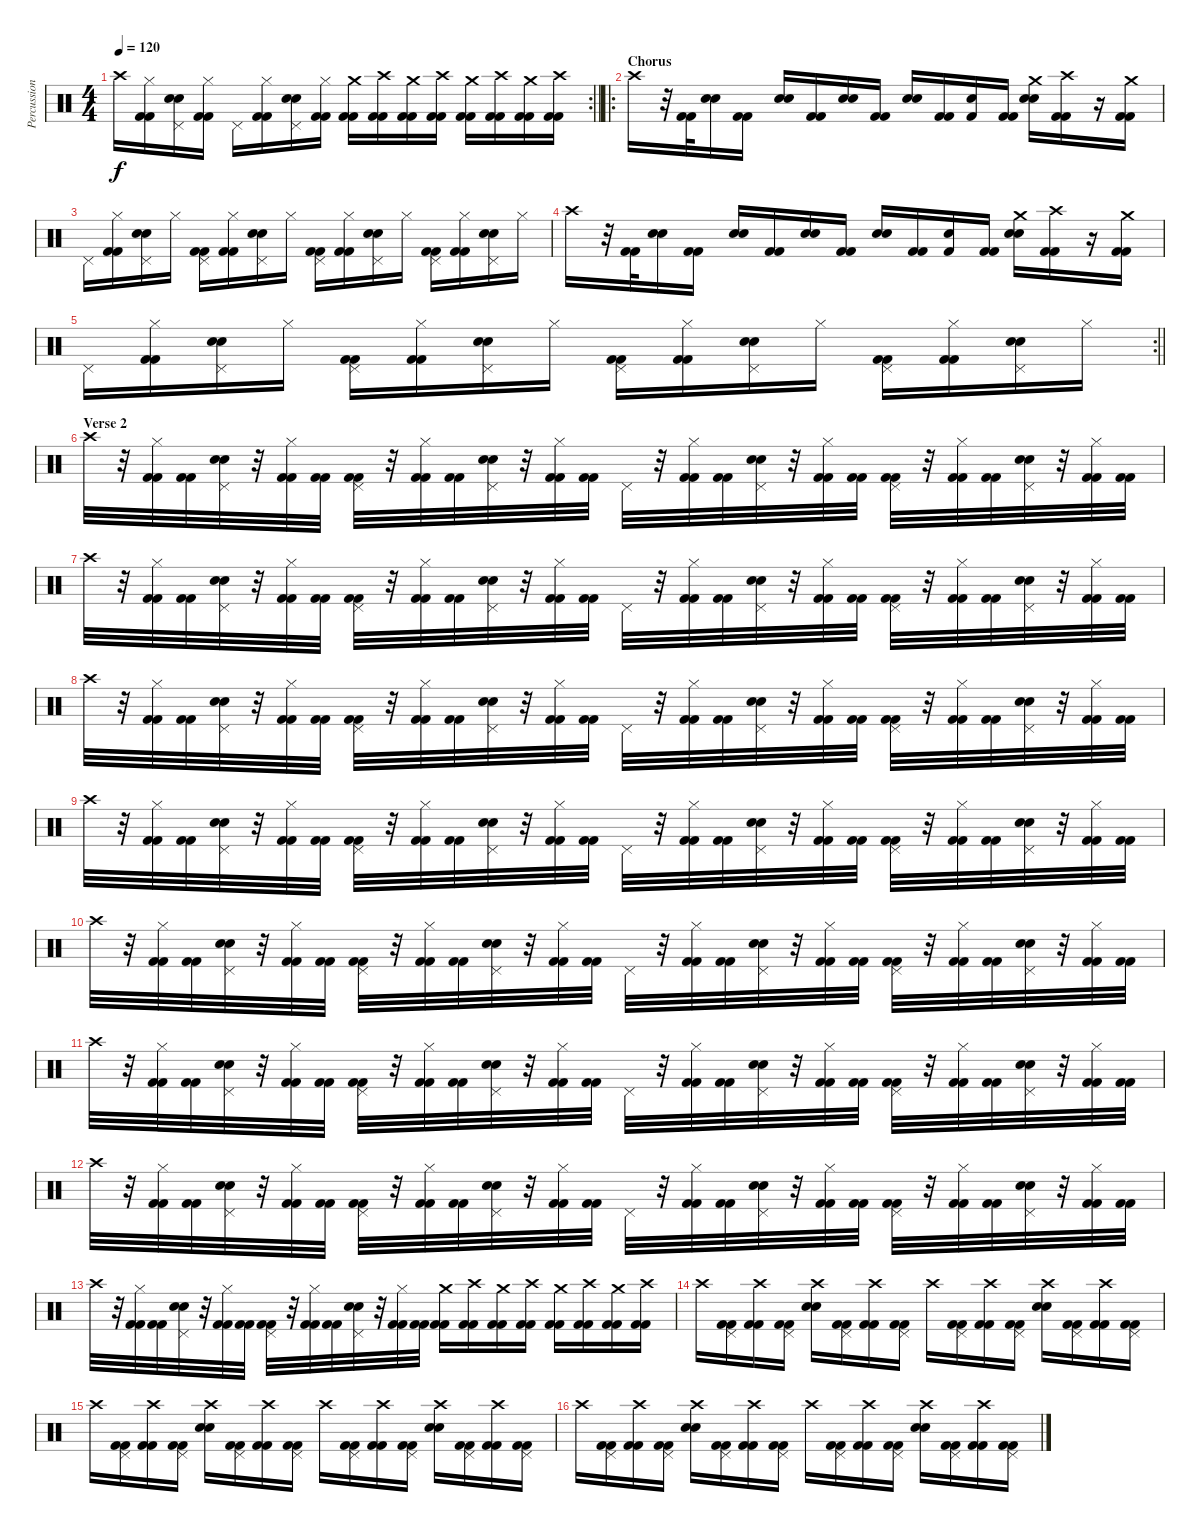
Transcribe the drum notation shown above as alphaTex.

\track ("Percussions" "Percussion") {instrument percussion}
\staff {score}
\articulation defaults
\rc 2
\ts (4 4)
\tempo 120
\clef neutral
\barLineRight lightlight
\ks c "Crash high (hit)".16{dy f}
("Hi-Hat (closed)" "Kick (hit) 2" "Kick (hit) 2").16 ("Pedal Hi-Hat (hit)" "Snare (hit) 2" "Electric Snare (hit)").16 ("Hi-Hat (closed)" "Kick (hit) 2" "Kick (hit) 2").16 "Pedal Hi-Hat (hit)".16 ("Hi-Hat (closed)" "Kick (hit) 2" "Kick (hit) 2").16 ("Pedal Hi-Hat (hit)" "Snare (hit) 2" "Electric Snare (hit)").16 ("Hi-Hat (closed)" "Kick (hit) 2" "Kick (hit) 2").16 ("Crash medium (hit)" "Kick (hit) 2" "Kick (hit) 2").16 ("Crash high (hit)" "Kick (hit) 2" "Kick (hit) 2").16 ("Crash medium (hit)" "Kick (hit) 2" "Kick (hit) 2").16 ("Crash high (hit)" "Kick (hit) 2" "Kick (hit) 2").16 ("Crash medium (hit)" "Kick (hit) 2" "Kick (hit) 2").16 ("Crash high (hit)" "Kick (hit) 2" "Kick (hit) 2").16 ("Crash medium (hit)" "Kick (hit) 2" "Kick (hit) 2").16 ("Crash high (hit)" "Kick (hit) 2" "Kick (hit) 2").16 |
\ro
\section ("" "Chorus")
"Crash high (hit)".16 r.32 ("Kick (hit) 2" "Kick (hit) 2").32 ("Snare (hit) 2" "Electric Snare (hit)").16 ("Kick (hit) 2" "Kick (hit) 2").16 ("Snare (hit) 2" "Electric Snare (hit)").16 ("Kick (hit) 2" "Kick (hit) 2").16 ("Snare (hit) 2" "Electric Snare (hit)").16 ("Kick (hit) 2" "Kick (hit) 2").16 ("Snare (hit) 2" "Electric Snare (hit)").16 ("Kick (hit) 2" "Kick (hit) 2").16 ("Kick (hit) 2" "Electric Snare (hit)").16 ("Kick (hit) 2" "Kick (hit) 2").16 ("Crash medium (hit)" "Snare (hit) 2" "Electric Snare (hit)").16 ("Crash high (hit)" "Kick (hit) 2" "Kick (hit) 2").16 r.16 ("Crash medium (hit)" "Kick (hit) 2" "Kick (hit) 2").16 |
"Pedal Hi-Hat (hit)".16 ("Hi-Hat (closed)" "Kick (hit) 2" "Kick (hit) 2").16 ("Pedal Hi-Hat (hit)" "Snare (hit) 2" "Electric Snare (hit)").16 "Hi-Hat (closed)".16 ("Pedal Hi-Hat (hit)" "Kick (hit) 2" "Kick (hit) 2").16 ("Hi-Hat (closed)" "Kick (hit) 2" "Kick (hit) 2").16 ("Pedal Hi-Hat (hit)" "Snare (hit) 2" "Electric Snare (hit)").16 "Hi-Hat (closed)".16 ("Pedal Hi-Hat (hit)" "Kick (hit) 2" "Kick (hit) 2").16 ("Hi-Hat (closed)" "Kick (hit) 2" "Kick (hit) 2").16 ("Pedal Hi-Hat (hit)" "Snare (hit) 2" "Electric Snare (hit)").16 "Hi-Hat (closed)".16 ("Pedal Hi-Hat (hit)" "Kick (hit) 2" "Kick (hit) 2").16 ("Hi-Hat (closed)" "Kick (hit) 2" "Kick (hit) 2").16 ("Pedal Hi-Hat (hit)" "Snare (hit) 2" "Electric Snare (hit)").16 "Hi-Hat (closed)".16 |
"Crash high (hit)".16 r.32 ("Kick (hit) 2" "Kick (hit) 2").32 ("Snare (hit) 2" "Electric Snare (hit)").16 ("Kick (hit) 2" "Kick (hit) 2").16 ("Snare (hit) 2" "Electric Snare (hit)").16 ("Kick (hit) 2" "Kick (hit) 2").16 ("Snare (hit) 2" "Electric Snare (hit)").16 ("Kick (hit) 2" "Kick (hit) 2").16 ("Snare (hit) 2" "Electric Snare (hit)").16 ("Kick (hit) 2" "Kick (hit) 2").16 ("Kick (hit) 2" "Electric Snare (hit)").16 ("Kick (hit) 2" "Kick (hit) 2").16 ("Crash medium (hit)" "Snare (hit) 2" "Electric Snare (hit)").16 ("Crash high (hit)" "Kick (hit) 2" "Kick (hit) 2").16 r.16 ("Crash medium (hit)" "Kick (hit) 2" "Kick (hit) 2").16 |
\rc 2
\barLineRight lightlight "Pedal Hi-Hat (hit)".16
("Hi-Hat (closed)" "Kick (hit) 2" "Kick (hit) 2").16 ("Pedal Hi-Hat (hit)" "Snare (hit) 2" "Electric Snare (hit)").16 "Hi-Hat (closed)".16 ("Pedal Hi-Hat (hit)" "Kick (hit) 2" "Kick (hit) 2").16 ("Hi-Hat (closed)" "Kick (hit) 2" "Kick (hit) 2").16 ("Pedal Hi-Hat (hit)" "Snare (hit) 2" "Electric Snare (hit)").16 "Hi-Hat (closed)".16 ("Pedal Hi-Hat (hit)" "Kick (hit) 2" "Kick (hit) 2").16 ("Hi-Hat (closed)" "Kick (hit) 2" "Kick (hit) 2").16 ("Pedal Hi-Hat (hit)" "Snare (hit) 2" "Electric Snare (hit)").16 "Hi-Hat (closed)".16 ("Pedal Hi-Hat (hit)" "Kick (hit) 2" "Kick (hit) 2").16 ("Hi-Hat (closed)" "Kick (hit) 2" "Kick (hit) 2").16 ("Pedal Hi-Hat (hit)" "Snare (hit) 2" "Electric Snare (hit)").16 "Hi-Hat (closed)".16 |
\section ("" "Verse 2")
"Crash high (hit)".32 r.32 ("Hi-Hat (closed)" "Kick (hit) 2" "Kick (hit) 2").32 ("Kick (hit) 2" "Kick (hit) 2").32 ("Pedal Hi-Hat (hit)" "Snare (hit) 2" "Electric Snare (hit)").32 r.32 ("Hi-Hat (closed)" "Kick (hit) 2" "Kick (hit) 2").32 ("Kick (hit) 2" "Kick (hit) 2").32 ("Pedal Hi-Hat (hit)" "Kick (hit) 2" "Kick (hit) 2").32 r.32 ("Hi-Hat (closed)" "Kick (hit) 2" "Kick (hit) 2").32 ("Kick (hit) 2" "Kick (hit) 2").32 ("Pedal Hi-Hat (hit)" "Snare (hit) 2" "Electric Snare (hit)").32 r.32 ("Hi-Hat (closed)" "Kick (hit) 2" "Kick (hit) 2").32 ("Kick (hit) 2" "Kick (hit) 2").32 "Pedal Hi-Hat (hit)".32 r.32 ("Hi-Hat (closed)" "Kick (hit) 2" "Kick (hit) 2").32 ("Kick (hit) 2" "Kick (hit) 2").32 ("Pedal Hi-Hat (hit)" "Snare (hit) 2" "Electric Snare (hit)").32 r.32 ("Hi-Hat (closed)" "Kick (hit) 2" "Kick (hit) 2").32 ("Kick (hit) 2" "Kick (hit) 2").32 ("Pedal Hi-Hat (hit)" "Kick (hit) 2" "Kick (hit) 2").32 r.32 ("Hi-Hat (closed)" "Kick (hit) 2" "Kick (hit) 2").32 ("Kick (hit) 2" "Kick (hit) 2").32 ("Pedal Hi-Hat (hit)" "Snare (hit) 2" "Electric Snare (hit)").32 r.32 ("Hi-Hat (closed)" "Kick (hit) 2" "Kick (hit) 2").32 ("Kick (hit) 2" "Kick (hit) 2").32 |
"Crash high (hit)".32 r.32 ("Hi-Hat (closed)" "Kick (hit) 2" "Kick (hit) 2").32 ("Kick (hit) 2" "Kick (hit) 2").32 ("Pedal Hi-Hat (hit)" "Snare (hit) 2" "Electric Snare (hit)").32 r.32 ("Hi-Hat (closed)" "Kick (hit) 2" "Kick (hit) 2").32 ("Kick (hit) 2" "Kick (hit) 2").32 ("Pedal Hi-Hat (hit)" "Kick (hit) 2" "Kick (hit) 2").32 r.32 ("Hi-Hat (closed)" "Kick (hit) 2" "Kick (hit) 2").32 ("Kick (hit) 2" "Kick (hit) 2").32 ("Pedal Hi-Hat (hit)" "Snare (hit) 2" "Electric Snare (hit)").32 r.32 ("Hi-Hat (closed)" "Kick (hit) 2" "Kick (hit) 2").32 ("Kick (hit) 2" "Kick (hit) 2").32 "Pedal Hi-Hat (hit)".32 r.32 ("Hi-Hat (closed)" "Kick (hit) 2" "Kick (hit) 2").32 ("Kick (hit) 2" "Kick (hit) 2").32 ("Pedal Hi-Hat (hit)" "Snare (hit) 2" "Electric Snare (hit)").32 r.32 ("Hi-Hat (closed)" "Kick (hit) 2" "Kick (hit) 2").32 ("Kick (hit) 2" "Kick (hit) 2").32 ("Pedal Hi-Hat (hit)" "Kick (hit) 2" "Kick (hit) 2").32 r.32 ("Hi-Hat (closed)" "Kick (hit) 2" "Kick (hit) 2").32 ("Kick (hit) 2" "Kick (hit) 2").32 ("Pedal Hi-Hat (hit)" "Snare (hit) 2" "Electric Snare (hit)").32 r.32 ("Hi-Hat (closed)" "Kick (hit) 2" "Kick (hit) 2").32 ("Kick (hit) 2" "Kick (hit) 2").32 |
"Crash high (hit)".32 r.32 ("Hi-Hat (closed)" "Kick (hit) 2" "Kick (hit) 2").32 ("Kick (hit) 2" "Kick (hit) 2").32 ("Pedal Hi-Hat (hit)" "Snare (hit) 2" "Electric Snare (hit)").32 r.32 ("Hi-Hat (closed)" "Kick (hit) 2" "Kick (hit) 2").32 ("Kick (hit) 2" "Kick (hit) 2").32 ("Pedal Hi-Hat (hit)" "Kick (hit) 2" "Kick (hit) 2").32 r.32 ("Hi-Hat (closed)" "Kick (hit) 2" "Kick (hit) 2").32 ("Kick (hit) 2" "Kick (hit) 2").32 ("Pedal Hi-Hat (hit)" "Snare (hit) 2" "Electric Snare (hit)").32 r.32 ("Hi-Hat (closed)" "Kick (hit) 2" "Kick (hit) 2").32 ("Kick (hit) 2" "Kick (hit) 2").32 "Pedal Hi-Hat (hit)".32 r.32 ("Hi-Hat (closed)" "Kick (hit) 2" "Kick (hit) 2").32 ("Kick (hit) 2" "Kick (hit) 2").32 ("Pedal Hi-Hat (hit)" "Snare (hit) 2" "Electric Snare (hit)").32 r.32 ("Hi-Hat (closed)" "Kick (hit) 2" "Kick (hit) 2").32 ("Kick (hit) 2" "Kick (hit) 2").32 ("Pedal Hi-Hat (hit)" "Kick (hit) 2" "Kick (hit) 2").32 r.32 ("Hi-Hat (closed)" "Kick (hit) 2" "Kick (hit) 2").32 ("Kick (hit) 2" "Kick (hit) 2").32 ("Pedal Hi-Hat (hit)" "Snare (hit) 2" "Electric Snare (hit)").32 r.32 ("Hi-Hat (closed)" "Kick (hit) 2" "Kick (hit) 2").32 ("Kick (hit) 2" "Kick (hit) 2").32 |
"Crash high (hit)".32 r.32 ("Hi-Hat (closed)" "Kick (hit) 2" "Kick (hit) 2").32 ("Kick (hit) 2" "Kick (hit) 2").32 ("Pedal Hi-Hat (hit)" "Snare (hit) 2" "Electric Snare (hit)").32 r.32 ("Hi-Hat (closed)" "Kick (hit) 2" "Kick (hit) 2").32 ("Kick (hit) 2" "Kick (hit) 2").32 ("Pedal Hi-Hat (hit)" "Kick (hit) 2" "Kick (hit) 2").32 r.32 ("Hi-Hat (closed)" "Kick (hit) 2" "Kick (hit) 2").32 ("Kick (hit) 2" "Kick (hit) 2").32 ("Pedal Hi-Hat (hit)" "Snare (hit) 2" "Electric Snare (hit)").32 r.32 ("Hi-Hat (closed)" "Kick (hit) 2" "Kick (hit) 2").32 ("Kick (hit) 2" "Kick (hit) 2").32 "Pedal Hi-Hat (hit)".32 r.32 ("Hi-Hat (closed)" "Kick (hit) 2" "Kick (hit) 2").32 ("Kick (hit) 2" "Kick (hit) 2").32 ("Pedal Hi-Hat (hit)" "Snare (hit) 2" "Electric Snare (hit)").32 r.32 ("Hi-Hat (closed)" "Kick (hit) 2" "Kick (hit) 2").32 ("Kick (hit) 2" "Kick (hit) 2").32 ("Pedal Hi-Hat (hit)" "Kick (hit) 2" "Kick (hit) 2").32 r.32 ("Hi-Hat (closed)" "Kick (hit) 2" "Kick (hit) 2").32 ("Kick (hit) 2" "Kick (hit) 2").32 ("Pedal Hi-Hat (hit)" "Snare (hit) 2" "Electric Snare (hit)").32 r.32 ("Hi-Hat (closed)" "Kick (hit) 2" "Kick (hit) 2").32 ("Kick (hit) 2" "Kick (hit) 2").32 |
"Crash high (hit)".32 r.32 ("Hi-Hat (closed)" "Kick (hit) 2" "Kick (hit) 2").32 ("Kick (hit) 2" "Kick (hit) 2").32 ("Pedal Hi-Hat (hit)" "Snare (hit) 2" "Electric Snare (hit)").32 r.32 ("Hi-Hat (closed)" "Kick (hit) 2" "Kick (hit) 2").32 ("Kick (hit) 2" "Kick (hit) 2").32 ("Pedal Hi-Hat (hit)" "Kick (hit) 2" "Kick (hit) 2").32 r.32 ("Hi-Hat (closed)" "Kick (hit) 2" "Kick (hit) 2").32 ("Kick (hit) 2" "Kick (hit) 2").32 ("Pedal Hi-Hat (hit)" "Snare (hit) 2" "Electric Snare (hit)").32 r.32 ("Hi-Hat (closed)" "Kick (hit) 2" "Kick (hit) 2").32 ("Kick (hit) 2" "Kick (hit) 2").32 "Pedal Hi-Hat (hit)".32 r.32 ("Hi-Hat (closed)" "Kick (hit) 2" "Kick (hit) 2").32 ("Kick (hit) 2" "Kick (hit) 2").32 ("Pedal Hi-Hat (hit)" "Snare (hit) 2" "Electric Snare (hit)").32 r.32 ("Hi-Hat (closed)" "Kick (hit) 2" "Kick (hit) 2").32 ("Kick (hit) 2" "Kick (hit) 2").32 ("Pedal Hi-Hat (hit)" "Kick (hit) 2" "Kick (hit) 2").32 r.32 ("Hi-Hat (closed)" "Kick (hit) 2" "Kick (hit) 2").32 ("Kick (hit) 2" "Kick (hit) 2").32 ("Pedal Hi-Hat (hit)" "Snare (hit) 2" "Electric Snare (hit)").32 r.32 ("Hi-Hat (closed)" "Kick (hit) 2" "Kick (hit) 2").32 ("Kick (hit) 2" "Kick (hit) 2").32 |
"Crash high (hit)".32 r.32 ("Hi-Hat (closed)" "Kick (hit) 2" "Kick (hit) 2").32 ("Kick (hit) 2" "Kick (hit) 2").32 ("Pedal Hi-Hat (hit)" "Snare (hit) 2" "Electric Snare (hit)").32 r.32 ("Hi-Hat (closed)" "Kick (hit) 2" "Kick (hit) 2").32 ("Kick (hit) 2" "Kick (hit) 2").32 ("Pedal Hi-Hat (hit)" "Kick (hit) 2" "Kick (hit) 2").32 r.32 ("Hi-Hat (closed)" "Kick (hit) 2" "Kick (hit) 2").32 ("Kick (hit) 2" "Kick (hit) 2").32 ("Pedal Hi-Hat (hit)" "Snare (hit) 2" "Electric Snare (hit)").32 r.32 ("Hi-Hat (closed)" "Kick (hit) 2" "Kick (hit) 2").32 ("Kick (hit) 2" "Kick (hit) 2").32 "Pedal Hi-Hat (hit)".32 r.32 ("Hi-Hat (closed)" "Kick (hit) 2" "Kick (hit) 2").32 ("Kick (hit) 2" "Kick (hit) 2").32 ("Pedal Hi-Hat (hit)" "Snare (hit) 2" "Electric Snare (hit)").32 r.32 ("Hi-Hat (closed)" "Kick (hit) 2" "Kick (hit) 2").32 ("Kick (hit) 2" "Kick (hit) 2").32 ("Pedal Hi-Hat (hit)" "Kick (hit) 2" "Kick (hit) 2").32 r.32 ("Hi-Hat (closed)" "Kick (hit) 2" "Kick (hit) 2").32 ("Kick (hit) 2" "Kick (hit) 2").32 ("Pedal Hi-Hat (hit)" "Snare (hit) 2" "Electric Snare (hit)").32 r.32 ("Hi-Hat (closed)" "Kick (hit) 2" "Kick (hit) 2").32 ("Kick (hit) 2" "Kick (hit) 2").32 |
"Crash high (hit)".32 r.32 ("Hi-Hat (closed)" "Kick (hit) 2" "Kick (hit) 2").32 ("Kick (hit) 2" "Kick (hit) 2").32 ("Pedal Hi-Hat (hit)" "Snare (hit) 2" "Electric Snare (hit)").32 r.32 ("Hi-Hat (closed)" "Kick (hit) 2" "Kick (hit) 2").32 ("Kick (hit) 2" "Kick (hit) 2").32 ("Pedal Hi-Hat (hit)" "Kick (hit) 2" "Kick (hit) 2").32 r.32 ("Hi-Hat (closed)" "Kick (hit) 2" "Kick (hit) 2").32 ("Kick (hit) 2" "Kick (hit) 2").32 ("Pedal Hi-Hat (hit)" "Snare (hit) 2" "Electric Snare (hit)").32 r.32 ("Hi-Hat (closed)" "Kick (hit) 2" "Kick (hit) 2").32 ("Kick (hit) 2" "Kick (hit) 2").32 "Pedal Hi-Hat (hit)".32 r.32 ("Hi-Hat (closed)" "Kick (hit) 2" "Kick (hit) 2").32 ("Kick (hit) 2" "Kick (hit) 2").32 ("Pedal Hi-Hat (hit)" "Snare (hit) 2" "Electric Snare (hit)").32 r.32 ("Hi-Hat (closed)" "Kick (hit) 2" "Kick (hit) 2").32 ("Kick (hit) 2" "Kick (hit) 2").32 ("Pedal Hi-Hat (hit)" "Kick (hit) 2" "Kick (hit) 2").32 r.32 ("Hi-Hat (closed)" "Kick (hit) 2" "Kick (hit) 2").32 ("Kick (hit) 2" "Kick (hit) 2").32 ("Pedal Hi-Hat (hit)" "Snare (hit) 2" "Electric Snare (hit)").32 r.32 ("Hi-Hat (closed)" "Kick (hit) 2" "Kick (hit) 2").32 ("Kick (hit) 2" "Kick (hit) 2").32 |
"Crash high (hit)".32 r.32 ("Hi-Hat (closed)" "Kick (hit) 2" "Kick (hit) 2").32 ("Kick (hit) 2" "Kick (hit) 2").32 ("Pedal Hi-Hat (hit)" "Snare (hit) 2" "Electric Snare (hit)").32 r.32 ("Hi-Hat (closed)" "Kick (hit) 2" "Kick (hit) 2").32 ("Kick (hit) 2" "Kick (hit) 2").32 ("Pedal Hi-Hat (hit)" "Kick (hit) 2" "Kick (hit) 2").32 r.32 ("Hi-Hat (closed)" "Kick (hit) 2" "Kick (hit) 2").32 ("Kick (hit) 2" "Kick (hit) 2").32 ("Pedal Hi-Hat (hit)" "Snare (hit) 2" "Electric Snare (hit)").32 r.32 ("Hi-Hat (closed)" "Kick (hit) 2" "Kick (hit) 2").32 ("Kick (hit) 2" "Kick (hit) 2").32 ("Crash medium (hit)" "Kick (hit) 2" "Kick (hit) 2").16 ("Crash high (hit)" "Kick (hit) 2" "Kick (hit) 2").16 ("Crash medium (hit)" "Kick (hit) 2" "Kick (hit) 2").16 ("Crash high (hit)" "Kick (hit) 2" "Kick (hit) 2").16 ("Crash medium (hit)" "Kick (hit) 2" "Kick (hit) 2").16 ("Crash high (hit)" "Kick (hit) 2" "Kick (hit) 2").16 ("Crash medium (hit)" "Kick (hit) 2" "Kick (hit) 2").16 ("Crash high (hit)" "Kick (hit) 2" "Kick (hit) 2").16 |
"Crash high (hit)".16 ("Pedal Hi-Hat (hit)" "Kick (hit) 2" "Kick (hit) 2").16 ("Crash high (hit)" "Kick (hit) 2" "Kick (hit) 2").16 ("Pedal Hi-Hat (hit)" "Kick (hit) 2" "Kick (hit) 2").16 ("Crash high (hit)" "Snare (hit) 2" "Electric Snare (hit)").16 ("Pedal Hi-Hat (hit)" "Kick (hit) 2" "Kick (hit) 2").16 ("Crash high (hit)" "Kick (hit) 2" "Kick (hit) 2").16 ("Pedal Hi-Hat (hit)" "Kick (hit) 2" "Kick (hit) 2").16 "Crash high (hit)".16 ("Pedal Hi-Hat (hit)" "Kick (hit) 2" "Kick (hit) 2").16 ("Crash high (hit)" "Kick (hit) 2" "Kick (hit) 2").16 ("Pedal Hi-Hat (hit)" "Kick (hit) 2" "Kick (hit) 2").16 ("Crash high (hit)" "Snare (hit) 2" "Electric Snare (hit)").16 ("Pedal Hi-Hat (hit)" "Kick (hit) 2" "Kick (hit) 2").16 ("Crash high (hit)" "Kick (hit) 2" "Kick (hit) 2").16 ("Pedal Hi-Hat (hit)" "Kick (hit) 2" "Kick (hit) 2").16 |
"Crash high (hit)".16 ("Pedal Hi-Hat (hit)" "Kick (hit) 2" "Kick (hit) 2").16 ("Crash high (hit)" "Kick (hit) 2" "Kick (hit) 2").16 ("Pedal Hi-Hat (hit)" "Kick (hit) 2" "Kick (hit) 2").16 ("Crash high (hit)" "Snare (hit) 2" "Electric Snare (hit)").16 ("Pedal Hi-Hat (hit)" "Kick (hit) 2" "Kick (hit) 2").16 ("Crash high (hit)" "Kick (hit) 2" "Kick (hit) 2").16 ("Pedal Hi-Hat (hit)" "Kick (hit) 2" "Kick (hit) 2").16 "Crash high (hit)".16 ("Pedal Hi-Hat (hit)" "Kick (hit) 2" "Kick (hit) 2").16 ("Crash high (hit)" "Kick (hit) 2" "Kick (hit) 2").16 ("Pedal Hi-Hat (hit)" "Kick (hit) 2" "Kick (hit) 2").16 ("Crash high (hit)" "Snare (hit) 2" "Electric Snare (hit)").16 ("Pedal Hi-Hat (hit)" "Kick (hit) 2" "Kick (hit) 2").16 ("Crash high (hit)" "Kick (hit) 2" "Kick (hit) 2").16 ("Pedal Hi-Hat (hit)" "Kick (hit) 2" "Kick (hit) 2").16 |
"Crash high (hit)".16 ("Pedal Hi-Hat (hit)" "Kick (hit) 2" "Kick (hit) 2").16 ("Crash high (hit)" "Kick (hit) 2" "Kick (hit) 2").16 ("Pedal Hi-Hat (hit)" "Kick (hit) 2" "Kick (hit) 2").16 ("Crash high (hit)" "Snare (hit) 2" "Electric Snare (hit)").16 ("Pedal Hi-Hat (hit)" "Kick (hit) 2" "Kick (hit) 2").16 ("Crash high (hit)" "Kick (hit) 2" "Kick (hit) 2").16 ("Pedal Hi-Hat (hit)" "Kick (hit) 2" "Kick (hit) 2").16 "Crash high (hit)".16 ("Pedal Hi-Hat (hit)" "Kick (hit) 2" "Kick (hit) 2").16 ("Crash high (hit)" "Kick (hit) 2" "Kick (hit) 2").16 ("Pedal Hi-Hat (hit)" "Kick (hit) 2" "Kick (hit) 2").16 ("Crash high (hit)" "Snare (hit) 2" "Electric Snare (hit)").16 ("Pedal Hi-Hat (hit)" "Kick (hit) 2" "Kick (hit) 2").16 ("Crash high (hit)" "Kick (hit) 2" "Kick (hit) 2").16 ("Pedal Hi-Hat (hit)" "Kick (hit) 2" "Kick (hit) 2").16
